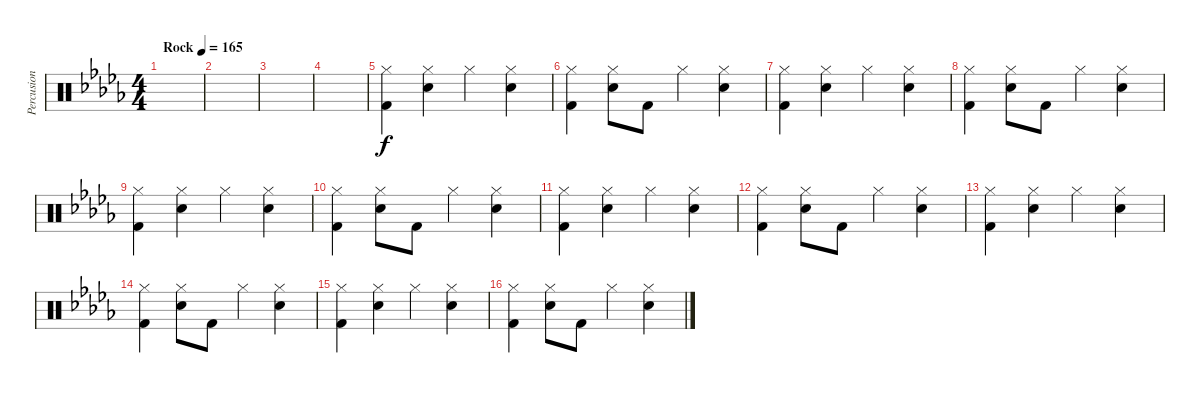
\track ("Percusion (percussions)" "Percusion ") {instrument percussion}
\staff {score}
\articulation defaults
\ts (4 4)
\tempo (165 "Rock")
\clef neutral
\ks db
|
|
|
|
("Hi-Hat (closed)" "Kick (hit) 2").4 ("Hi-Hat (closed)" "Snare (hit) 2").4 "Hi-Hat (closed)".4 ("Hi-Hat (closed)" "Snare (hit) 2").4 |
("Hi-Hat (closed)" "Kick (hit) 2").4 ("Hi-Hat (closed)" "Snare (hit) 2").8 "Kick (hit) 2".8 "Hi-Hat (closed)".4 ("Hi-Hat (closed)" "Snare (hit) 2").4 |
("Hi-Hat (closed)" "Kick (hit) 2").4 ("Hi-Hat (closed)" "Snare (hit) 2").4 "Hi-Hat (closed)".4 ("Hi-Hat (closed)" "Snare (hit) 2").4 |
("Hi-Hat (closed)" "Kick (hit) 2").4 ("Hi-Hat (closed)" "Snare (hit) 2").8 "Kick (hit) 2".8 "Hi-Hat (closed)".4 ("Hi-Hat (closed)" "Snare (hit) 2").4 |
("Hi-Hat (closed)" "Kick (hit) 2").4 ("Hi-Hat (closed)" "Snare (hit) 2").4 "Hi-Hat (closed)".4 ("Hi-Hat (closed)" "Snare (hit) 2").4 |
("Hi-Hat (closed)" "Kick (hit) 2").4 ("Hi-Hat (closed)" "Snare (hit) 2").8 "Kick (hit) 2".8 "Hi-Hat (closed)".4 ("Hi-Hat (closed)" "Snare (hit) 2").4 |
("Hi-Hat (closed)" "Kick (hit) 2").4 ("Hi-Hat (closed)" "Snare (hit) 2").4 "Hi-Hat (closed)".4 ("Hi-Hat (closed)" "Snare (hit) 2").4 |
("Hi-Hat (closed)" "Kick (hit) 2").4 ("Hi-Hat (closed)" "Snare (hit) 2").8 "Kick (hit) 2".8 "Hi-Hat (closed)".4 ("Hi-Hat (closed)" "Snare (hit) 2").4 |
("Hi-Hat (closed)" "Kick (hit) 2").4 ("Hi-Hat (closed)" "Snare (hit) 2").4 "Hi-Hat (closed)".4 ("Hi-Hat (closed)" "Snare (hit) 2").4 |
("Hi-Hat (closed)" "Kick (hit) 2").4 ("Hi-Hat (closed)" "Snare (hit) 2").8 "Kick (hit) 2".8 "Hi-Hat (closed)".4 ("Hi-Hat (closed)" "Snare (hit) 2").4 |
("Hi-Hat (closed)" "Kick (hit) 2").4 ("Hi-Hat (closed)" "Snare (hit) 2").4 "Hi-Hat (closed)".4 ("Hi-Hat (closed)" "Snare (hit) 2").4 |
("Hi-Hat (closed)" "Kick (hit) 2").4 ("Hi-Hat (closed)" "Snare (hit) 2").8 "Kick (hit) 2".8 "Hi-Hat (closed)".4 ("Hi-Hat (closed)" "Snare (hit) 2").4
